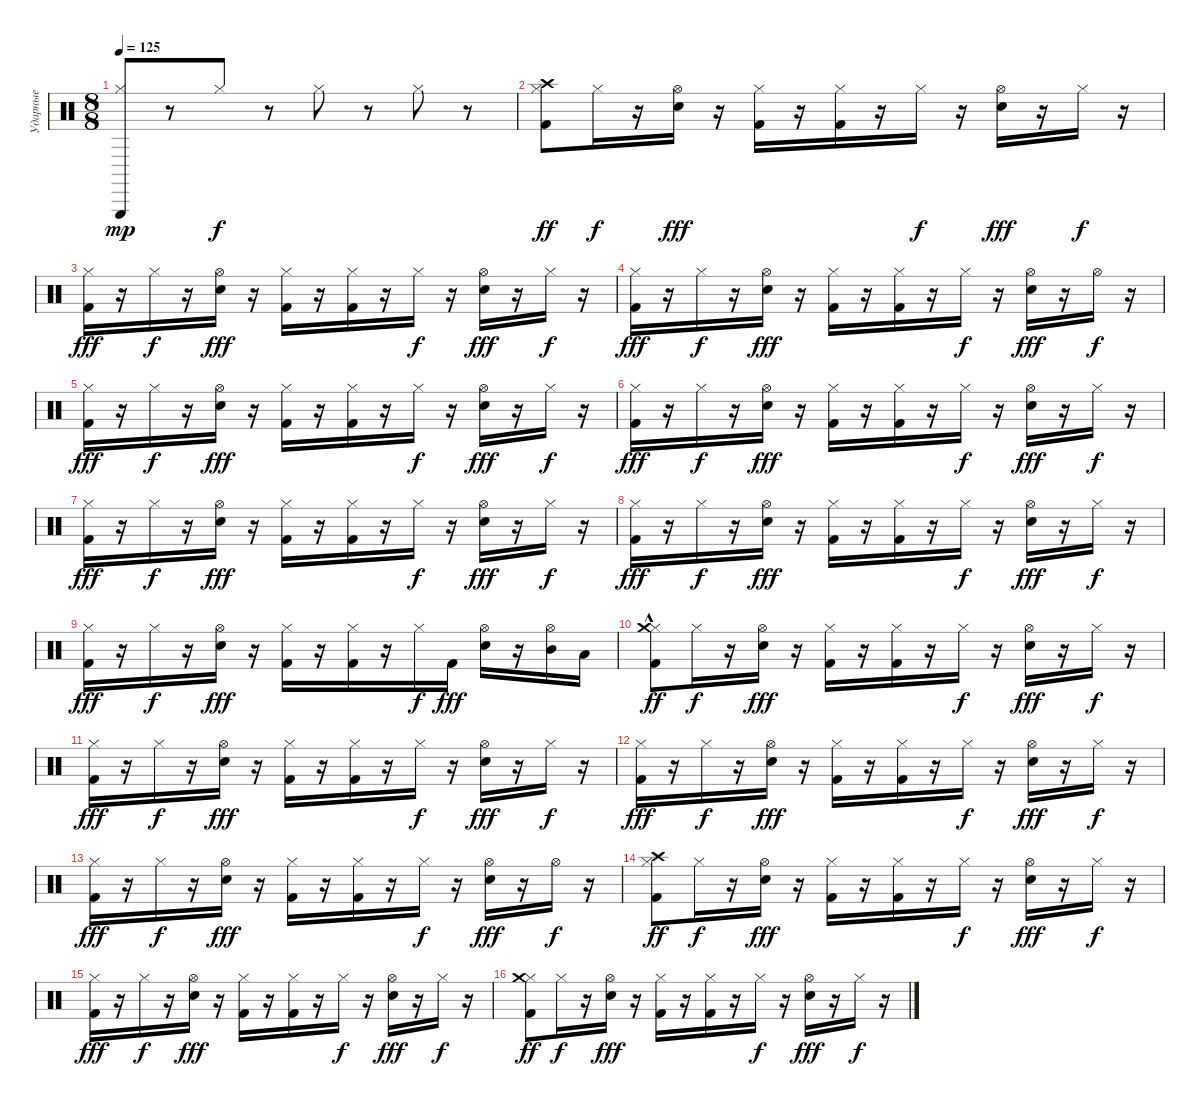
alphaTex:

\track ("Ударные" "Ударные") {instrument percussion}
\staff {score}
\articulation defaults
\ts (8 8)
\tempo 125
\clef neutral
\ks c
("Hi-Hat (closed)" "Triangle (hit)").8{dy mp} r.8 "Hi-Hat (closed)".8{dy f} r.8 "Hi-Hat (closed)".8 r.8 "Hi-Hat (closed)".8 r.8 |
("Kick (hit) 2" "Hi-Hat (closed)" "Crash high (hit)").8{dy ff} "Hi-Hat (closed)".16{dy f} r.16 ("Hi-Hat (open)" "Snare (hit) 2").16{dy fff} r.16 ("Kick (hit) 2" "Hi-Hat (closed)").16 r.16 ("Kick (hit) 2" "Hi-Hat (closed)").16 r.16 "Hi-Hat (closed)".16{dy f} r.16 ("Hi-Hat (open)" "Snare (hit) 2").16{dy fff} r.16 "Hi-Hat (closed)".16{dy f} r.16 |
("Kick (hit) 2" "Hi-Hat (closed)").16{dy fff} r.16 "Hi-Hat (closed)".16{dy f} r.16 ("Hi-Hat (open)" "Snare (hit) 2").16{dy fff} r.16 ("Kick (hit) 2" "Hi-Hat (closed)").16 r.16 ("Kick (hit) 2" "Hi-Hat (closed)").16 r.16 "Hi-Hat (closed)".16{dy f} r.16 ("Hi-Hat (open)" "Snare (hit) 2").16{dy fff} r.16 "Hi-Hat (closed)".16{dy f} r.16 |
("Kick (hit) 2" "Hi-Hat (closed)").16{dy fff} r.16 "Hi-Hat (closed)".16{dy f} r.16 ("Hi-Hat (open)" "Snare (hit) 2").16{dy fff} r.16 ("Kick (hit) 2" "Hi-Hat (closed)").16 r.16 ("Kick (hit) 2" "Hi-Hat (closed)").16 r.16 "Hi-Hat (closed)".16{dy f} r.16 ("Hi-Hat (open)" "Snare (hit) 2").16{dy fff} r.16 "Hi-Hat (open)".16{dy f} r.16 |
("Kick (hit) 2" "Hi-Hat (closed)").16{dy fff} r.16 "Hi-Hat (closed)".16{dy f} r.16 ("Hi-Hat (open)" "Snare (hit) 2").16{dy fff} r.16 ("Kick (hit) 2" "Hi-Hat (closed)").16 r.16 ("Kick (hit) 2" "Hi-Hat (closed)").16 r.16 "Hi-Hat (closed)".16{dy f} r.16 ("Hi-Hat (open)" "Snare (hit) 2").16{dy fff} r.16 "Hi-Hat (closed)".16{dy f} r.16 |
("Kick (hit) 2" "Hi-Hat (closed)").16{dy fff} r.16 "Hi-Hat (closed)".16{dy f} r.16 ("Hi-Hat (open)" "Snare (hit) 2").16{dy fff} r.16 ("Kick (hit) 2" "Hi-Hat (closed)").16 r.16 ("Kick (hit) 2" "Hi-Hat (closed)").16 r.16 "Hi-Hat (closed)".16{dy f} r.16 ("Hi-Hat (open)" "Snare (hit) 2").16{dy fff} r.16 "Hi-Hat (closed)".16{dy f} r.16 |
("Kick (hit) 2" "Hi-Hat (closed)").16{dy fff} r.16 "Hi-Hat (closed)".16{dy f} r.16 ("Hi-Hat (open)" "Snare (hit) 2").16{dy fff} r.16 ("Kick (hit) 2" "Hi-Hat (closed)").16 r.16 ("Kick (hit) 2" "Hi-Hat (closed)").16 r.16 "Hi-Hat (closed)".16{dy f} r.16 ("Hi-Hat (open)" "Snare (hit) 2").16{dy fff} r.16 "Hi-Hat (closed)".16{dy f} r.16 |
("Kick (hit) 2" "Hi-Hat (closed)").16{dy fff} r.16 "Hi-Hat (closed)".16{dy f} r.16 ("Hi-Hat (open)" "Snare (hit) 2").16{dy fff} r.16 ("Kick (hit) 2" "Hi-Hat (closed)").16 r.16 ("Kick (hit) 2" "Hi-Hat (closed)").16 r.16 "Hi-Hat (closed)".16{dy f} r.16 ("Hi-Hat (open)" "Snare (hit) 2").16{dy fff} r.16 "Hi-Hat (closed)".16{dy f} r.16 |
("Kick (hit) 2" "Hi-Hat (closed)").16{dy fff} r.16 "Hi-Hat (closed)".16{dy f} r.16 ("Hi-Hat (open)" "Snare (hit) 2").16{dy fff} r.16 ("Kick (hit) 2" "Hi-Hat (closed)").16 r.16 ("Kick (hit) 2" "Hi-Hat (closed)").16 r.16 "Hi-Hat (closed)".16{dy f} "Kick (hit) 2".16{dy fff} ("Hi-Hat (open)" "Snare (hit) 2").16 r.16 ("Hi-Hat (open)" "Mid Tom (hit)").16 "Low Tom (hit)".16 |
("Kick (hit) 2" "Hi-Hat (closed)" "Crash medium (hit)"{hac}).8{dy ff} "Hi-Hat (closed)".16{dy f} r.16 ("Hi-Hat (open)" "Snare (hit) 2").16{dy fff} r.16 ("Kick (hit) 2" "Hi-Hat (closed)").16 r.16 ("Kick (hit) 2" "Hi-Hat (closed)").16 r.16 "Hi-Hat (closed)".16{dy f} r.16 ("Hi-Hat (open)" "Snare (hit) 2").16{dy fff} r.16 "Hi-Hat (closed)".16{dy f} r.16 |
("Kick (hit) 2" "Hi-Hat (closed)").16{dy fff} r.16 "Hi-Hat (closed)".16{dy f} r.16 ("Hi-Hat (open)" "Snare (hit) 2").16{dy fff} r.16 ("Kick (hit) 2" "Hi-Hat (closed)").16 r.16 ("Kick (hit) 2" "Hi-Hat (closed)").16 r.16 "Hi-Hat (closed)".16{dy f} r.16 ("Hi-Hat (open)" "Snare (hit) 2").16{dy fff} r.16 "Hi-Hat (closed)".16{dy f} r.16 |
("Kick (hit) 2" "Hi-Hat (closed)").16{dy fff} r.16 "Hi-Hat (closed)".16{dy f} r.16 ("Hi-Hat (open)" "Snare (hit) 2").16{dy fff} r.16 ("Kick (hit) 2" "Hi-Hat (closed)").16 r.16 ("Kick (hit) 2" "Hi-Hat (closed)").16 r.16 "Hi-Hat (closed)".16{dy f} r.16 ("Hi-Hat (open)" "Snare (hit) 2").16{dy fff} r.16 "Hi-Hat (closed)".16{dy f} r.16 |
("Kick (hit) 2" "Hi-Hat (closed)").16{dy fff} r.16 "Hi-Hat (closed)".16{dy f} r.16 ("Hi-Hat (open)" "Snare (hit) 2").16{dy fff} r.16 ("Kick (hit) 2" "Hi-Hat (closed)").16 r.16 ("Kick (hit) 2" "Hi-Hat (closed)").16 r.16 "Hi-Hat (closed)".16{dy f} r.16 ("Hi-Hat (open)" "Snare (hit) 2").16{dy fff} r.16 "Hi-Hat (open)".16{dy f} r.16 |
("Kick (hit) 2" "Hi-Hat (closed)" "Crash high (hit)").8{dy ff} "Hi-Hat (closed)".16{dy f} r.16 ("Hi-Hat (open)" "Snare (hit) 2").16{dy fff} r.16 ("Kick (hit) 2" "Hi-Hat (closed)").16 r.16 ("Kick (hit) 2" "Hi-Hat (closed)").16 r.16 "Hi-Hat (closed)".16{dy f} r.16 ("Hi-Hat (open)" "Snare (hit) 2").16{dy fff} r.16 "Hi-Hat (closed)".16{dy f} r.16 |
("Kick (hit) 2" "Hi-Hat (closed)").16{dy fff} r.16 "Hi-Hat (closed)".16{dy f} r.16 ("Hi-Hat (open)" "Snare (hit) 2").16{dy fff} r.16 ("Kick (hit) 2" "Hi-Hat (closed)").16 r.16 ("Kick (hit) 2" "Hi-Hat (closed)").16 r.16 "Hi-Hat (closed)".16{dy f} r.16 ("Hi-Hat (open)" "Snare (hit) 2").16{dy fff} r.16 "Hi-Hat (closed)".16{dy f} r.16 |
("Kick (hit) 2" "Hi-Hat (closed)" "Crash medium (hit)").8{dy ff} "Hi-Hat (closed)".16{dy f} r.16 ("Hi-Hat (open)" "Snare (hit) 2").16{dy fff} r.16 ("Kick (hit) 2" "Hi-Hat (closed)").16 r.16 ("Kick (hit) 2" "Hi-Hat (closed)").16 r.16 "Hi-Hat (closed)".16{dy f} r.16 ("Hi-Hat (open)" "Snare (hit) 2").16{dy fff} r.16 "Hi-Hat (closed)".16{dy f} r.16
